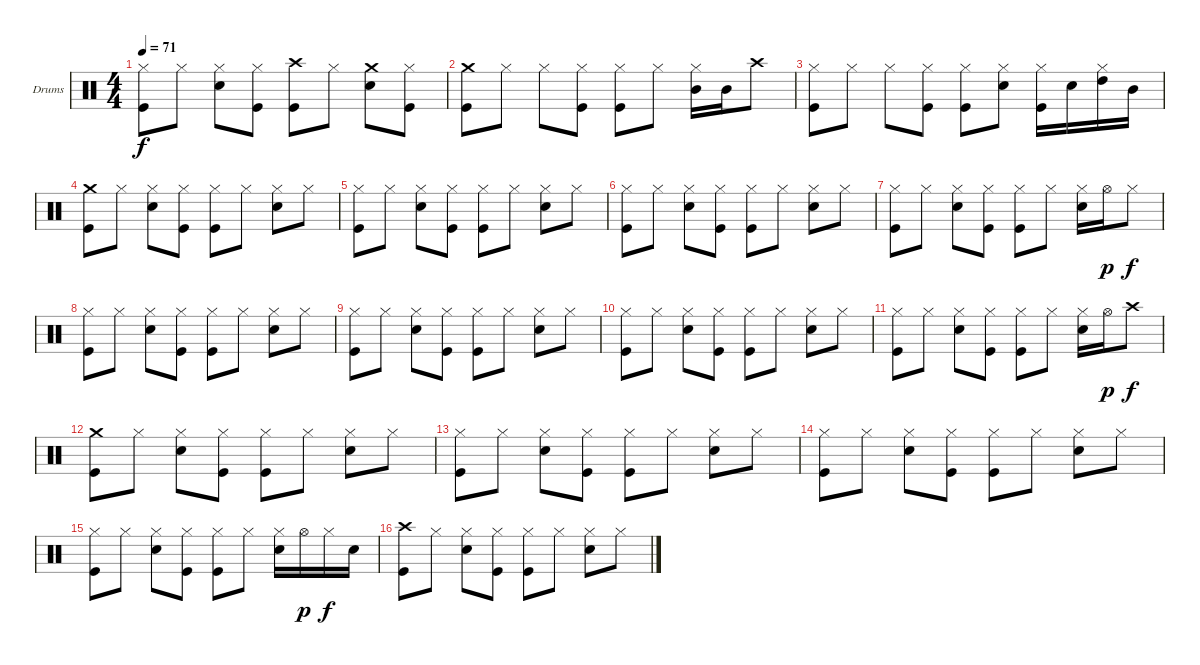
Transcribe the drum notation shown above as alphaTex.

\bracketExtendMode groupsimilarinstruments
\firstSystemTrackNameOrientation horizontal
\otherSystemsTrackNameOrientation horizontal
\track ("Барабаны" "Drums") {instrument percussion}
\staff {score}
\articulation defaults
\ts (4 4)
\tempo 71
\clef neutral
\scale
0.333333
\ks c
("Hi-Hat (closed)" "Kick (hit)").8{dy f} "Hi-Hat (closed)".8 ("Hi-Hat (closed)" "Snare (hit) 2").8 ("Hi-Hat (closed)" "Kick (hit)").8 ("Crash high (hit)" "Kick (hit)").8 "Hi-Hat (closed)".8 ("Crash medium (hit)" "Snare (hit) 2").8 ("Hi-Hat (closed)" "Kick (hit)").8 |
\scale
0.333333 ("Crash medium (hit)" "Kick (hit)").8 "Hi-Hat (closed)".8 "Hi-Hat (closed)".8 ("Hi-Hat (closed)" "Kick (hit)").8 ("Hi-Hat (closed)" "Kick (hit)").8 "Hi-Hat (closed)".8 ("Hi-Hat (closed)" "Mid Tom (hit)").16 "Mid Tom (hit)".16 "Crash high (hit)".8 |
\scale
0.333333 ("Hi-Hat (closed)" "Kick (hit)").8 "Hi-Hat (closed)".8 "Hi-Hat (closed)".8 ("Hi-Hat (closed)" "Kick (hit)").8 ("Hi-Hat (closed)" "Kick (hit)").8 ("Hi-Hat (closed)" "Snare (hit) 2").8 ("Hi-Hat (closed)" "Kick (hit)").16 "Snare (hit) 2".16 ("Hi-Hat (closed)" "High Tom (hit)").16 "Mid Tom (hit)".16 |
\scale
0.333333 ("Crash medium (hit)" "Kick (hit)").8 "Hi-Hat (closed)".8 ("Hi-Hat (closed)" "Snare (hit) 2").8 ("Hi-Hat (closed)" "Kick (hit)").8 ("Hi-Hat (closed)" "Kick (hit)").8 "Hi-Hat (closed)".8 ("Hi-Hat (closed)" "Snare (hit) 2").8 "Hi-Hat (closed)".8 |
\scale
0.333333 ("Hi-Hat (closed)" "Kick (hit)").8 "Hi-Hat (closed)".8 ("Hi-Hat (closed)" "Snare (hit) 2").8 ("Hi-Hat (closed)" "Kick (hit)").8 ("Hi-Hat (closed)" "Kick (hit)").8 "Hi-Hat (closed)".8 ("Hi-Hat (closed)" "Snare (hit) 2").8 "Hi-Hat (closed)".8 |
\scale
0.333333 ("Hi-Hat (closed)" "Kick (hit)").8 "Hi-Hat (closed)".8 ("Hi-Hat (closed)" "Snare (hit) 2").8 ("Hi-Hat (closed)" "Kick (hit)").8 ("Hi-Hat (closed)" "Kick (hit)").8 "Hi-Hat (closed)".8 ("Hi-Hat (closed)" "Snare (hit) 2").8 "Hi-Hat (closed)".8 |
\scale
0.333333 ("Hi-Hat (closed)" "Kick (hit)").8 "Hi-Hat (closed)".8 ("Hi-Hat (closed)" "Snare (hit) 2").8 ("Hi-Hat (closed)" "Kick (hit)").8 ("Hi-Hat (closed)" "Kick (hit)").8 "Hi-Hat (closed)".8 ("Hi-Hat (closed)" "Snare (hit) 2").16 "Hi-Hat (open)".16{dy p} "Hi-Hat (closed)".8{dy f} |
\scale
0.333333 ("Hi-Hat (closed)" "Kick (hit)").8 "Hi-Hat (closed)".8 ("Hi-Hat (closed)" "Snare (hit) 2").8 ("Hi-Hat (closed)" "Kick (hit)").8 ("Hi-Hat (closed)" "Kick (hit)").8 "Hi-Hat (closed)".8 ("Hi-Hat (closed)" "Snare (hit) 2").8 "Hi-Hat (closed)".8 |
\scale
0.333333 ("Hi-Hat (closed)" "Kick (hit)").8 "Hi-Hat (closed)".8 ("Hi-Hat (closed)" "Snare (hit) 2").8 ("Hi-Hat (closed)" "Kick (hit)").8 ("Hi-Hat (closed)" "Kick (hit)").8 "Hi-Hat (closed)".8 ("Hi-Hat (closed)" "Snare (hit) 2").8 "Hi-Hat (closed)".8 |
\scale
0.333333 ("Hi-Hat (closed)" "Kick (hit)").8 "Hi-Hat (closed)".8 ("Hi-Hat (closed)" "Snare (hit) 2").8 ("Hi-Hat (closed)" "Kick (hit)").8 ("Hi-Hat (closed)" "Kick (hit)").8 "Hi-Hat (closed)".8 ("Hi-Hat (closed)" "Snare (hit) 2").8 "Hi-Hat (closed)".8 |
\scale
0.333333 ("Hi-Hat (closed)" "Kick (hit)").8 "Hi-Hat (closed)".8 ("Hi-Hat (closed)" "Snare (hit) 2").8 ("Hi-Hat (closed)" "Kick (hit)").8 ("Hi-Hat (closed)" "Kick (hit)").8 "Hi-Hat (closed)".8 ("Hi-Hat (closed)" "Snare (hit) 2").16 "Hi-Hat (open)".16{dy p} "Crash high (hit)".8{dy f} |
\scale
0.333333 ("Crash medium (hit)" "Kick (hit)").8 "Hi-Hat (closed)".8 ("Hi-Hat (closed)" "Snare (hit) 2").8 ("Hi-Hat (closed)" "Kick (hit)").8 ("Hi-Hat (closed)" "Kick (hit)").8 "Hi-Hat (closed)".8 ("Hi-Hat (closed)" "Snare (hit) 2").8 "Hi-Hat (closed)".8 |
\scale
0.333333 ("Hi-Hat (closed)" "Kick (hit)").8 "Hi-Hat (closed)".8 ("Hi-Hat (closed)" "Snare (hit) 2").8 ("Hi-Hat (closed)" "Kick (hit)").8 ("Hi-Hat (closed)" "Kick (hit)").8 "Hi-Hat (closed)".8 ("Hi-Hat (closed)" "Snare (hit) 2").8 "Hi-Hat (closed)".8 |
\scale
0.333333 ("Hi-Hat (closed)" "Kick (hit)").8 "Hi-Hat (closed)".8 ("Hi-Hat (closed)" "Snare (hit) 2").8 ("Hi-Hat (closed)" "Kick (hit)").8 ("Hi-Hat (closed)" "Kick (hit)").8 "Hi-Hat (closed)".8 ("Hi-Hat (closed)" "Snare (hit) 2").8 "Hi-Hat (closed)".8 |
\scale
0.333333 ("Hi-Hat (closed)" "Kick (hit)").8 "Hi-Hat (closed)".8 ("Hi-Hat (closed)" "Snare (hit) 2").8 ("Hi-Hat (closed)" "Kick (hit)").8 ("Hi-Hat (closed)" "Kick (hit)").8 "Hi-Hat (closed)".8 ("Hi-Hat (closed)" "Snare (hit) 2").16 "Hi-Hat (open)".16{dy p} "Hi-Hat (closed)".16{dy f} "Snare (hit) 2".16 |
\scale
0.333333 ("Crash high (hit)" "Kick (hit)").8 "Hi-Hat (closed)".8 ("Hi-Hat (closed)" "Snare (hit) 2").8 ("Hi-Hat (closed)" "Kick (hit)").8 ("Hi-Hat (closed)" "Kick (hit)").8 "Hi-Hat (closed)".8 ("Hi-Hat (closed)" "Snare (hit) 2").8 "Hi-Hat (closed)".8
